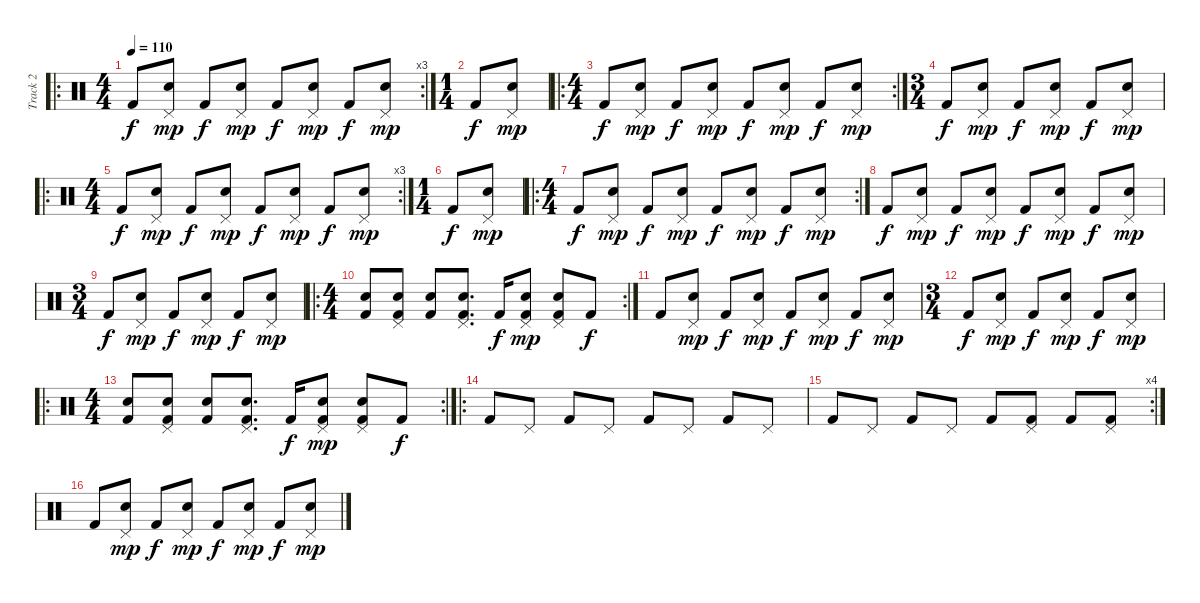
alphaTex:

\track ("Track 2" "Track 2") {instrument percussion}
\staff {score}
\articulation defaults
\ro
\rc 3
\ts (4 4)
\tempo 110
\clef neutral
\ks c "Kick (hit) 2".8{dy f}
("Pedal Hi-Hat (hit)" "Hand Clap (hit)").8{dy mp} "Kick (hit) 2".8{dy f} ("Pedal Hi-Hat (hit)" "Hand Clap (hit)").8{dy mp} "Kick (hit) 2".8{dy f} ("Pedal Hi-Hat (hit)" "Hand Clap (hit)").8{dy mp} "Kick (hit) 2".8{dy f} ("Pedal Hi-Hat (hit)" "Hand Clap (hit)").8{dy mp} |
\ts (1 4)
"Kick (hit) 2".8{dy f} ("Pedal Hi-Hat (hit)" "Hand Clap (hit)").8{dy mp} |
\ro
\rc 2
\ts (4 4)
"Kick (hit) 2".8{dy f} ("Pedal Hi-Hat (hit)" "Hand Clap (hit)").8{dy mp} "Kick (hit) 2".8{dy f} ("Pedal Hi-Hat (hit)" "Hand Clap (hit)").8{dy mp} "Kick (hit) 2".8{dy f} ("Pedal Hi-Hat (hit)" "Hand Clap (hit)").8{dy mp} "Kick (hit) 2".8{dy f} ("Pedal Hi-Hat (hit)" "Hand Clap (hit)").8{dy mp} |
\ts (3 4)
"Kick (hit) 2".8{dy f} ("Pedal Hi-Hat (hit)" "Hand Clap (hit)").8{dy mp} "Kick (hit) 2".8{dy f} ("Pedal Hi-Hat (hit)" "Hand Clap (hit)").8{dy mp} "Kick (hit) 2".8{dy f} ("Pedal Hi-Hat (hit)" "Hand Clap (hit)").8{dy mp} |
\ro
\rc 3
\ts (4 4)
"Kick (hit) 2".8{dy f} ("Pedal Hi-Hat (hit)" "Hand Clap (hit)").8{dy mp} "Kick (hit) 2".8{dy f} ("Pedal Hi-Hat (hit)" "Hand Clap (hit)").8{dy mp} "Kick (hit) 2".8{dy f} ("Pedal Hi-Hat (hit)" "Hand Clap (hit)").8{dy mp} "Kick (hit) 2".8{dy f} ("Pedal Hi-Hat (hit)" "Hand Clap (hit)").8{dy mp} |
\ts (1 4)
"Kick (hit) 2".8{dy f} ("Pedal Hi-Hat (hit)" "Hand Clap (hit)").8{dy mp} |
\ro
\rc 2
\ts (4 4)
"Kick (hit) 2".8{dy f} ("Pedal Hi-Hat (hit)" "Hand Clap (hit)").8{dy mp} "Kick (hit) 2".8{dy f} ("Pedal Hi-Hat (hit)" "Hand Clap (hit)").8{dy mp} "Kick (hit) 2".8{dy f} ("Pedal Hi-Hat (hit)" "Hand Clap (hit)").8{dy mp} "Kick (hit) 2".8{dy f} ("Pedal Hi-Hat (hit)" "Hand Clap (hit)").8{dy mp} |
"Kick (hit) 2".8{dy f} ("Pedal Hi-Hat (hit)" "Hand Clap (hit)").8{dy mp} "Kick (hit) 2".8{dy f} ("Pedal Hi-Hat (hit)" "Hand Clap (hit)").8{dy mp} "Kick (hit) 2".8{dy f} ("Pedal Hi-Hat (hit)" "Hand Clap (hit)").8{dy mp} "Kick (hit) 2".8{dy f} ("Pedal Hi-Hat (hit)" "Hand Clap (hit)").8{dy mp} |
\ts (3 4)
"Kick (hit) 2".8{dy f} ("Pedal Hi-Hat (hit)" "Hand Clap (hit)").8{dy mp} "Kick (hit) 2".8{dy f} ("Pedal Hi-Hat (hit)" "Hand Clap (hit)").8{dy mp} "Kick (hit) 2".8{dy f} ("Pedal Hi-Hat (hit)" "Hand Clap (hit)").8{dy mp} |
\ro
\rc 2
\ts (4 4)
("Kick (hit) 2" "Hand Clap (hit)").8 ("Kick (hit) 2" "Hand Clap (hit)" "Pedal Hi-Hat (hit)").8 ("Kick (hit) 2" "Hand Clap (hit)").8 ("Kick (hit) 2" "Hand Clap (hit)" "Pedal Hi-Hat (hit)").8{d} "Kick (hit) 2".16{dy f} ("Kick (hit) 2" "Hand Clap (hit)" "Pedal Hi-Hat (hit)").8{dy mp} ("Kick (hit) 2" "Hand Clap (hit)" "Pedal Hi-Hat (hit)").8 "Kick (hit) 2".8{dy f} |
"Kick (hit) 2".8 ("Pedal Hi-Hat (hit)" "Hand Clap (hit)").8{dy mp} "Kick (hit) 2".8{dy f} ("Pedal Hi-Hat (hit)" "Hand Clap (hit)").8{dy mp} "Kick (hit) 2".8{dy f} ("Pedal Hi-Hat (hit)" "Hand Clap (hit)").8{dy mp} "Kick (hit) 2".8{dy f} ("Pedal Hi-Hat (hit)" "Hand Clap (hit)").8{dy mp} |
\ts (3 4)
"Kick (hit) 2".8{dy f} ("Pedal Hi-Hat (hit)" "Hand Clap (hit)").8{dy mp} "Kick (hit) 2".8{dy f} ("Pedal Hi-Hat (hit)" "Hand Clap (hit)").8{dy mp} "Kick (hit) 2".8{dy f} ("Pedal Hi-Hat (hit)" "Hand Clap (hit)").8{dy mp} |
\ro
\rc 2
\ts (4 4)
("Kick (hit) 2" "Hand Clap (hit)").8 ("Kick (hit) 2" "Hand Clap (hit)" "Pedal Hi-Hat (hit)").8 ("Kick (hit) 2" "Hand Clap (hit)").8 ("Kick (hit) 2" "Hand Clap (hit)" "Pedal Hi-Hat (hit)").8{d} "Kick (hit) 2".16{dy f} ("Kick (hit) 2" "Hand Clap (hit)" "Pedal Hi-Hat (hit)").8{dy mp} ("Kick (hit) 2" "Hand Clap (hit)" "Pedal Hi-Hat (hit)").8 "Kick (hit) 2".8{dy f} |
\ro "Kick (hit) 2".8 "Pedal Hi-Hat (hit)".8 "Kick (hit) 2".8 "Pedal Hi-Hat (hit)".8 "Kick (hit) 2".8 "Pedal Hi-Hat (hit)".8 "Kick (hit) 2".8 "Pedal Hi-Hat (hit)".8
|
\rc 4 "Kick (hit) 2".8 "Pedal Hi-Hat (hit)".8 "Kick (hit) 2".8 "Pedal Hi-Hat (hit)".8 "Kick (hit) 2".8
("Kick (hit) 2" "Pedal Hi-Hat (hit)").8 "Kick (hit) 2".8 ("Kick (hit) 2" "Pedal Hi-Hat (hit)").8 |
"Kick (hit) 2".8 ("Pedal Hi-Hat (hit)" "Hand Clap (hit)").8{dy mp} "Kick (hit) 2".8{dy f} ("Pedal Hi-Hat (hit)" "Hand Clap (hit)").8{dy mp} "Kick (hit) 2".8{dy f} ("Pedal Hi-Hat (hit)" "Hand Clap (hit)").8{dy mp} "Kick (hit) 2".8{dy f} ("Pedal Hi-Hat (hit)" "Hand Clap (hit)").8{dy mp}
